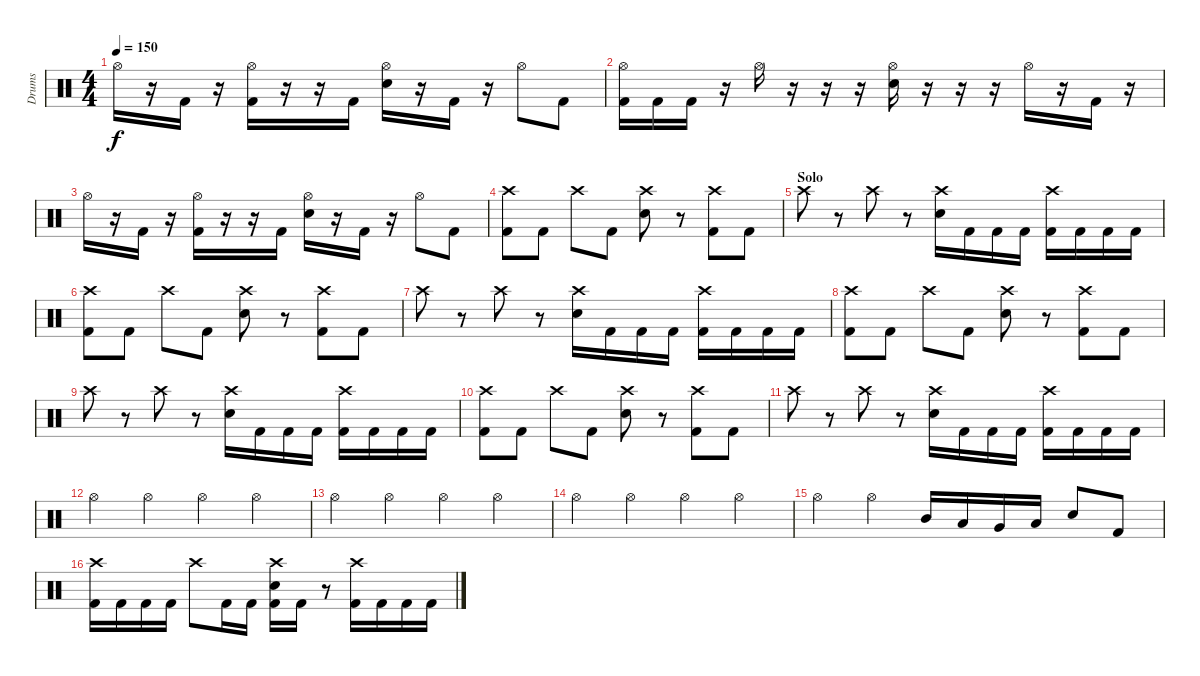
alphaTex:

\track ("Drums" "Drums") {instrument percussion}
\staff {score}
\articulation defaults
\ts (4 4)
\tempo 150
\clef neutral
\ks c "Hi-Hat (open)".16{dy f}
r.16 "Kick (hit) 2".16 r.16 ("Hi-Hat (open)" "Kick (hit) 2").16 r.16 r.16 "Kick (hit) 2".16 ("Hi-Hat (open)" "Electric Snare (hit)").16 r.16 "Kick (hit) 2".16 r.16 "Hi-Hat (open)".8 "Kick (hit) 2".8 |
("Hi-Hat (open)" "Kick (hit) 2").16 "Kick (hit) 2".16 "Kick (hit) 2".16 r.16 "Hi-Hat (open)".16 r.16 r.16 r.16 ("Hi-Hat (open)" "Electric Snare (hit)").16 r.16 r.16 r.16 "Hi-Hat (open)".16 r.16 "Kick (hit) 2".16 r.16 |
"Hi-Hat (open)".16 r.16 "Kick (hit) 2".16 r.16 ("Hi-Hat (open)" "Kick (hit) 2").16 r.16 r.16 "Kick (hit) 2".16 ("Hi-Hat (open)" "Electric Snare (hit)").16 r.16 "Kick (hit) 2".16 r.16 "Hi-Hat (open)".8 "Kick (hit) 2".8 |
("Crash high (hit)" "Kick (hit) 2").8 "Kick (hit) 2".8 "Crash high (hit)".8 "Kick (hit) 2".8 ("Crash high (hit)" "Electric Snare (hit)").8 r.8 ("Crash high (hit)" "Kick (hit) 2").8 "Kick (hit) 2".8 |
\section ("" "Solo")
"Crash high (hit)".8 r.8 "Crash high (hit)".8 r.8 ("Crash high (hit)" "Electric Snare (hit)").16 "Kick (hit) 2".16 "Kick (hit) 2".16 "Kick (hit) 2".16 ("Crash high (hit)" "Kick (hit) 2").16 "Kick (hit) 2".16 "Kick (hit) 2".16 "Kick (hit) 2".16 |
("Crash high (hit)" "Kick (hit) 2").8 "Kick (hit) 2".8 "Crash high (hit)".8 "Kick (hit) 2".8 ("Crash high (hit)" "Electric Snare (hit)").8 r.8 ("Crash high (hit)" "Kick (hit) 2").8 "Kick (hit) 2".8 |
"Crash high (hit)".8 r.8 "Crash high (hit)".8 r.8 ("Crash high (hit)" "Electric Snare (hit)").16 "Kick (hit) 2".16 "Kick (hit) 2".16 "Kick (hit) 2".16 ("Crash high (hit)" "Kick (hit) 2").16 "Kick (hit) 2".16 "Kick (hit) 2".16 "Kick (hit) 2".16 |
("Crash high (hit)" "Kick (hit) 2").8 "Kick (hit) 2".8 "Crash high (hit)".8 "Kick (hit) 2".8 ("Crash high (hit)" "Electric Snare (hit)").8 r.8 ("Crash high (hit)" "Kick (hit) 2").8 "Kick (hit) 2".8 |
"Crash high (hit)".8 r.8 "Crash high (hit)".8 r.8 ("Crash high (hit)" "Electric Snare (hit)").16 "Kick (hit) 2".16 "Kick (hit) 2".16 "Kick (hit) 2".16 ("Crash high (hit)" "Kick (hit) 2").16 "Kick (hit) 2".16 "Kick (hit) 2".16 "Kick (hit) 2".16 |
("Crash high (hit)" "Kick (hit) 2").8 "Kick (hit) 2".8 "Crash high (hit)".8 "Kick (hit) 2".8 ("Crash high (hit)" "Electric Snare (hit)").8 r.8 ("Crash high (hit)" "Kick (hit) 2").8 "Kick (hit) 2".8 |
"Crash high (hit)".8 r.8 "Crash high (hit)".8 r.8 ("Crash high (hit)" "Electric Snare (hit)").16 "Kick (hit) 2".16 "Kick (hit) 2".16 "Kick (hit) 2".16 ("Crash high (hit)" "Kick (hit) 2").16 "Kick (hit) 2".16 "Kick (hit) 2".16 "Kick (hit) 2".16 |
"Hi-Hat (open)".4 "Hi-Hat (open)".4 "Hi-Hat (open)".4 "Hi-Hat (open)".4 |
"Hi-Hat (open)".4 "Hi-Hat (open)".4 "Hi-Hat (open)".4 "Hi-Hat (open)".4 |
"Hi-Hat (open)".4 "Hi-Hat (open)".4 "Hi-Hat (open)".4 "Hi-Hat (open)".4 |
"Hi-Hat (open)".4 "Hi-Hat (open)".4 "Mid Tom (hit)".16 "Low Tom (hit)".16 "Very Low Tom (hit)".16 "Low Floor Tom (hit)".16 "Electric Snare (hit)".8 "Kick (hit) 2".8 |
("Crash high (hit)" "Kick (hit) 2").16 "Kick (hit) 2".16 "Kick (hit) 2".16 "Kick (hit) 2".16 "Crash high (hit)".8 "Kick (hit) 2".16 "Kick (hit) 2".16 ("Crash high (hit)" "Electric Snare (hit)" "Kick (hit) 2").16 "Kick (hit) 2".16 r.8 ("Crash high (hit)" "Kick (hit) 2").16 "Kick (hit) 2".16 "Kick (hit) 2".16 "Kick (hit) 2".16
